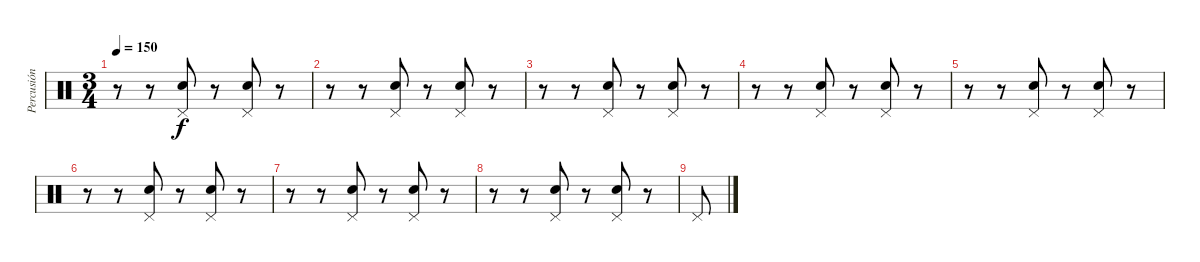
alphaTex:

\track ("Percusión" "Percusión") {instrument percussion}
\staff {score}
\articulation defaults
\ts (3 4)
\tempo 150
\clef neutral
\ks c
r.8{dy f} r.8 ("Pedal Hi-Hat (hit)" "Electric Snare (hit)").8 r.8 ("Pedal Hi-Hat (hit)" "Electric Snare (hit)").8 r.8 |
r.8 r.8 ("Pedal Hi-Hat (hit)" "Electric Snare (hit)").8 r.8 ("Pedal Hi-Hat (hit)" "Electric Snare (hit)").8 r.8 |
r.8 r.8 ("Pedal Hi-Hat (hit)" "Electric Snare (hit)").8 r.8 ("Pedal Hi-Hat (hit)" "Electric Snare (hit)").8 r.8 |
r.8 r.8 ("Pedal Hi-Hat (hit)" "Electric Snare (hit)").8 r.8 ("Pedal Hi-Hat (hit)" "Electric Snare (hit)").8 r.8 |
r.8 r.8 ("Pedal Hi-Hat (hit)" "Electric Snare (hit)").8 r.8 ("Pedal Hi-Hat (hit)" "Electric Snare (hit)").8 r.8 |
r.8 r.8 ("Pedal Hi-Hat (hit)" "Electric Snare (hit)").8 r.8 ("Pedal Hi-Hat (hit)" "Electric Snare (hit)").8 r.8 |
r.8 r.8 ("Pedal Hi-Hat (hit)" "Electric Snare (hit)").8 r.8 ("Pedal Hi-Hat (hit)" "Electric Snare (hit)").8 r.8 |
r.8 r.8 ("Pedal Hi-Hat (hit)" "Electric Snare (hit)").8 r.8 ("Pedal Hi-Hat (hit)" "Electric Snare (hit)").8 r.8 |
"Pedal Hi-Hat (hit)".8
